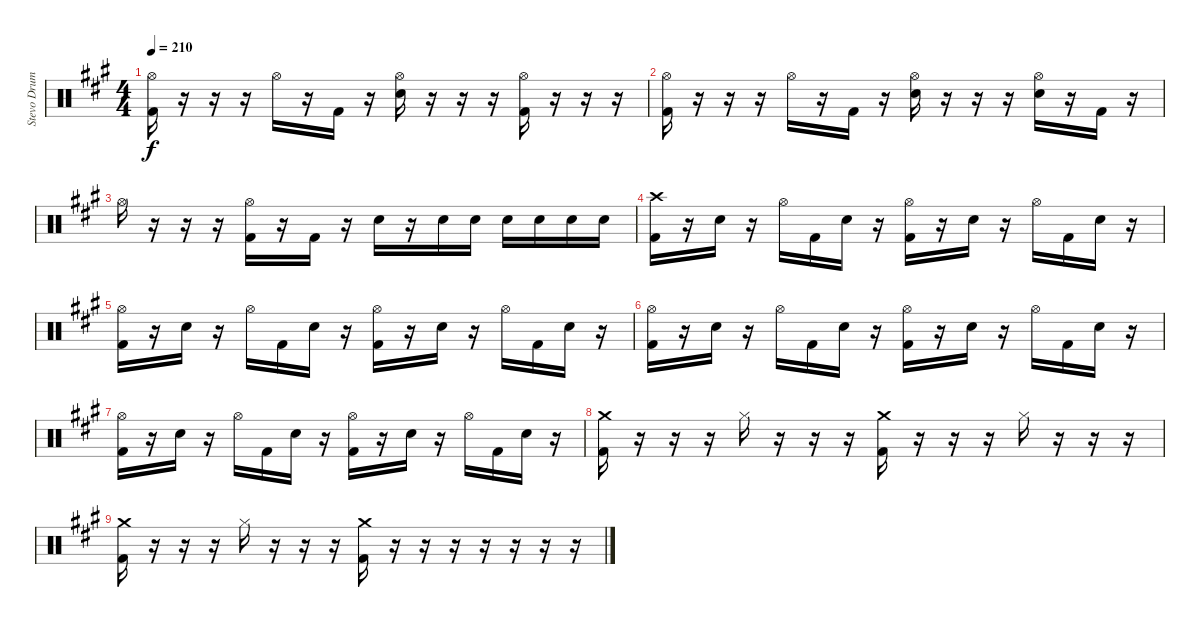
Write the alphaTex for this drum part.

\track ("Stevo Drums" "Stevo Drum") {instrument percussion}
\staff {score}
\articulation defaults
\ts (4 4)
\tempo 210
\clef neutral
\ks a
("Hi-Hat (open)" "Kick (hit) 2").16{dy f} r.16 r.16 r.16 "Hi-Hat (open)".16 r.16 "Kick (hit) 2".16 r.16 ("Hi-Hat (open)" "Snare (hit) 2").16 r.16 r.16 r.16 ("Hi-Hat (open)" "Kick (hit) 2").16 r.16 r.16 r.16 |
("Hi-Hat (open)" "Kick (hit) 2").16 r.16 r.16 r.16 "Hi-Hat (open)".16 r.16 "Kick (hit) 2".16 r.16 ("Hi-Hat (open)" "Snare (hit) 2").16 r.16 r.16 r.16 ("Hi-Hat (open)" "Snare (hit) 2").16 r.16 "Kick (hit) 2".16 r.16 |
"Hi-Hat (open)".16 r.16 r.16 r.16 ("Hi-Hat (open)" "Kick (hit) 2").16 r.16 "Kick (hit) 2".16 r.16 "Snare (hit) 2".16 r.16 "Snare (hit) 2".16 "Snare (hit) 2".16 "Snare (hit) 2".16 "Snare (hit) 2".16 "Snare (hit) 2".16 "Snare (hit) 2".16 |
("Crash high (hit)" "Kick (hit) 2").16 r.16 "Snare (hit) 2".16 r.16 "Hi-Hat (open)".16 "Kick (hit) 2".16 "Snare (hit) 2".16 r.16 ("Hi-Hat (open)" "Kick (hit) 2").16 r.16 "Snare (hit) 2".16 r.16 "Hi-Hat (open)".16 "Kick (hit) 2".16 "Snare (hit) 2".16 r.16 |
("Hi-Hat (open)" "Kick (hit) 2").16 r.16 "Snare (hit) 2".16 r.16 "Hi-Hat (open)".16 "Kick (hit) 2".16 "Snare (hit) 2".16 r.16 ("Hi-Hat (open)" "Kick (hit) 2").16 r.16 "Snare (hit) 2".16 r.16 "Hi-Hat (open)".16 "Kick (hit) 2".16 "Snare (hit) 2".16 r.16 |
("Hi-Hat (open)" "Kick (hit) 2").16 r.16 "Snare (hit) 2".16 r.16 "Hi-Hat (open)".16 "Kick (hit) 2".16 "Snare (hit) 2".16 r.16 ("Hi-Hat (open)" "Kick (hit) 2").16 r.16 "Snare (hit) 2".16 r.16 "Hi-Hat (open)".16 "Kick (hit) 2".16 "Snare (hit) 2".16 r.16 |
("Hi-Hat (open)" "Kick (hit) 2").16 r.16 "Snare (hit) 2".16 r.16 "Hi-Hat (open)".16 "Kick (hit) 2".16 "Snare (hit) 2".16 r.16 ("Hi-Hat (open)" "Kick (hit) 2").16 r.16 "Snare (hit) 2".16 r.16 "Hi-Hat (open)".16 "Kick (hit) 2".16 "Snare (hit) 2".16 r.16 |
("Crash medium (hit)" "Kick (hit) 2").16 r.16 r.16 r.16 "Hi-Hat (closed)".16 r.16 r.16 r.16 ("Crash medium (hit)" "Kick (hit) 2").16 r.16 r.16 r.16 "Hi-Hat (closed)".16 r.16 r.16 r.16 |
("Crash medium (hit)" "Kick (hit) 2").16 r.16 r.16 r.16 "Hi-Hat (closed)".16 r.16 r.16 r.16 ("Crash medium (hit)" "Kick (hit) 2").16 r.16 r.16 r.16 r.16 r.16 r.16 r.16
